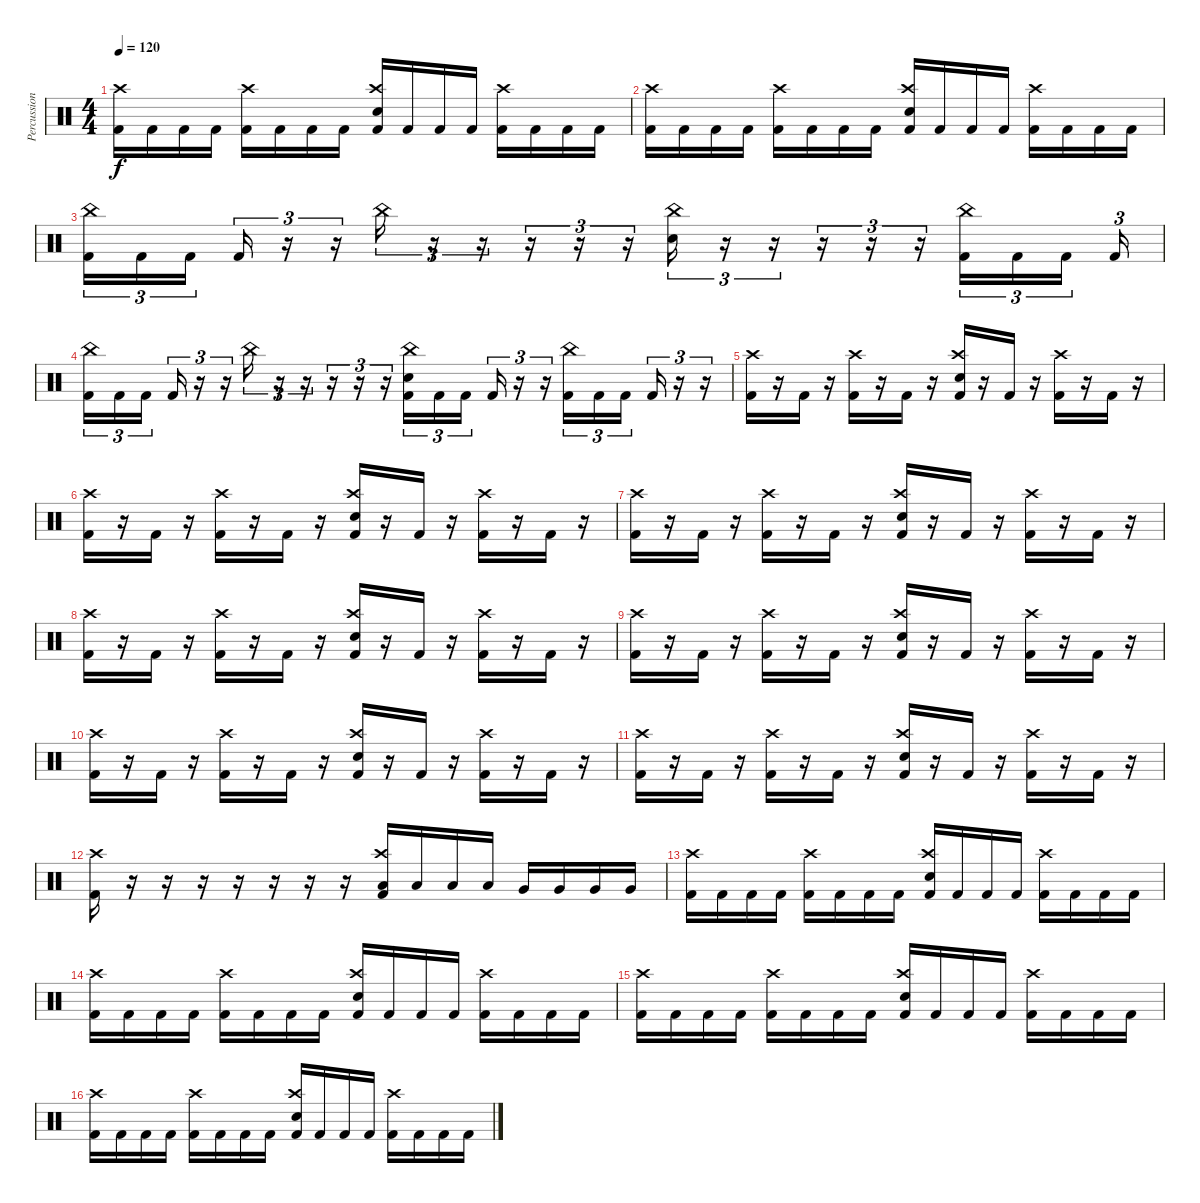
\track ("Percussion" "Percussion") {instrument percussion}
\staff {score}
\articulation defaults
\ts (4 4)
\tempo 120
\clef neutral
\ks c
("Kick (hit) 2" "Crash high (hit)").16{dy f} "Kick (hit) 2".16 "Kick (hit) 2".16 "Kick (hit) 2".16 ("Kick (hit) 2" "Crash high (hit)").16 "Kick (hit) 2".16 "Kick (hit) 2".16 "Kick (hit) 2".16 ("Kick (hit) 2" "Crash high (hit)" "Electric Snare (hit)").16 "Kick (hit) 2".16 "Kick (hit) 2".16 "Kick (hit) 2".16 ("Kick (hit) 2" "Crash high (hit)").16 "Kick (hit) 2".16 "Kick (hit) 2".16 "Kick (hit) 2".16 |
("Kick (hit) 2" "Crash high (hit)").16 "Kick (hit) 2".16 "Kick (hit) 2".16 "Kick (hit) 2".16 ("Kick (hit) 2" "Crash high (hit)").16 "Kick (hit) 2".16 "Kick (hit) 2".16 "Kick (hit) 2".16 ("Kick (hit) 2" "Crash high (hit)" "Electric Snare (hit)").16 "Kick (hit) 2".16 "Kick (hit) 2".16 "Kick (hit) 2".16 ("Kick (hit) 2" "Crash high (hit)").16 "Kick (hit) 2".16 "Kick (hit) 2".16 "Kick (hit) 2".16 |
("Kick (hit) 2" "China (hit)").16{tu (3 2)} "Kick (hit) 2".16{tu (3 2)} "Kick (hit) 2".16{tu (3 2)} "Kick (hit) 2".16{tu (3 2)} r.16{tu (3 2)} r.16{tu (3 2)} "China (hit)".16{tu (3 2)} r.16{tu (3 2)} r.16{tu (3 2)} r.16{tu (3 2)} r.16{tu (3 2)} r.16{tu (3 2)} ("Electric Snare (hit)" "China (hit)").16{tu (3 2)} r.16{tu (3 2)} r.16{tu (3 2)} r.16{tu (3 2)} r.16{tu (3 2)} r.16{tu (3 2)} ("Kick (hit) 2" "China (hit)").16{tu (3 2)} "Kick (hit) 2".16{tu (3 2)} "Kick (hit) 2".16{tu (3 2)} "Kick (hit) 2".16{tu (3 2)} |
("Kick (hit) 2" "China (hit)").16{tu (3 2)} "Kick (hit) 2".16{tu (3 2)} "Kick (hit) 2".16{tu (3 2)} "Kick (hit) 2".16{tu (3 2)} r.16{tu (3 2)} r.16{tu (3 2)} "China (hit)".16{tu (3 2)} r.16{tu (3 2)} r.16{tu (3 2)} r.16{tu (3 2)} r.16{tu (3 2)} r.16{tu (3 2)} ("Kick (hit) 2" "China (hit)" "Electric Snare (hit)").16{tu (3 2)} "Kick (hit) 2".16{tu (3 2)} "Kick (hit) 2".16{tu (3 2)} "Kick (hit) 2".16{tu (3 2)} r.16{tu (3 2)} r.16{tu (3 2)} ("Kick (hit) 2" "China (hit)").16{tu (3 2)} "Kick (hit) 2".16{tu (3 2)} "Kick (hit) 2".16{tu (3 2)} "Kick (hit) 2".16{tu (3 2)} r.16{tu (3 2)} r.16{tu (3 2)} |
("Kick (hit) 2" "Crash high (hit)").16 r.16 "Kick (hit) 2".16 r.16 ("Kick (hit) 2" "Crash high (hit)").16 r.16 "Kick (hit) 2".16 r.16 ("Kick (hit) 2" "Electric Snare (hit)" "Crash high (hit)").16 r.16 "Kick (hit) 2".16 r.16 ("Kick (hit) 2" "Crash high (hit)").16 r.16 "Kick (hit) 2".16 r.16 |
("Kick (hit) 2" "Crash high (hit)").16 r.16 "Kick (hit) 2".16 r.16 ("Kick (hit) 2" "Crash high (hit)").16 r.16 "Kick (hit) 2".16 r.16 ("Kick (hit) 2" "Electric Snare (hit)" "Crash high (hit)").16 r.16 "Kick (hit) 2".16 r.16 ("Kick (hit) 2" "Crash high (hit)").16 r.16 "Kick (hit) 2".16 r.16 |
("Kick (hit) 2" "Crash high (hit)").16 r.16 "Kick (hit) 2".16 r.16 ("Kick (hit) 2" "Crash high (hit)").16 r.16 "Kick (hit) 2".16 r.16 ("Kick (hit) 2" "Electric Snare (hit)" "Crash high (hit)").16 r.16 "Kick (hit) 2".16 r.16 ("Kick (hit) 2" "Crash high (hit)").16 r.16 "Kick (hit) 2".16 r.16 |
("Kick (hit) 2" "Crash high (hit)").16 r.16 "Kick (hit) 2".16 r.16 ("Kick (hit) 2" "Crash high (hit)").16 r.16 "Kick (hit) 2".16 r.16 ("Kick (hit) 2" "Electric Snare (hit)" "Crash high (hit)").16 r.16 "Kick (hit) 2".16 r.16 ("Kick (hit) 2" "Crash high (hit)").16 r.16 "Kick (hit) 2".16 r.16 |
("Kick (hit) 2" "Crash high (hit)").16 r.16 "Kick (hit) 2".16 r.16 ("Kick (hit) 2" "Crash high (hit)").16 r.16 "Kick (hit) 2".16 r.16 ("Kick (hit) 2" "Electric Snare (hit)" "Crash high (hit)").16 r.16 "Kick (hit) 2".16 r.16 ("Kick (hit) 2" "Crash high (hit)").16 r.16 "Kick (hit) 2".16 r.16 |
("Kick (hit) 2" "Crash high (hit)").16 r.16 "Kick (hit) 2".16 r.16 ("Kick (hit) 2" "Crash high (hit)").16 r.16 "Kick (hit) 2".16 r.16 ("Kick (hit) 2" "Electric Snare (hit)" "Crash high (hit)").16 r.16 "Kick (hit) 2".16 r.16 ("Kick (hit) 2" "Crash high (hit)").16 r.16 "Kick (hit) 2".16 r.16 |
("Kick (hit) 2" "Crash high (hit)").16 r.16 "Kick (hit) 2".16 r.16 ("Kick (hit) 2" "Crash high (hit)").16 r.16 "Kick (hit) 2".16 r.16 ("Kick (hit) 2" "Electric Snare (hit)" "Crash high (hit)").16 r.16 "Kick (hit) 2".16 r.16 ("Kick (hit) 2" "Crash high (hit)").16 r.16 "Kick (hit) 2".16 r.16 |
("Kick (hit) 2" "Crash high (hit)").16 r.16 r.16 r.16 r.16 r.16 r.16 r.16 ("Low Tom (hit)" "Kick (hit) 2" "Crash high (hit)").16 "Low Tom (hit)".16 "Low Tom (hit)".16 "Low Tom (hit)".16 "Very Low Tom (hit)".16 "Very Low Tom (hit)".16 "Very Low Tom (hit)".16 "Very Low Tom (hit)".16 |
("Kick (hit) 2" "Crash high (hit)").16 "Kick (hit) 2".16 "Kick (hit) 2".16 "Kick (hit) 2".16 ("Kick (hit) 2" "Crash high (hit)").16 "Kick (hit) 2".16 "Kick (hit) 2".16 "Kick (hit) 2".16 ("Kick (hit) 2" "Electric Snare (hit)" "Crash high (hit)").16 "Kick (hit) 2".16 "Kick (hit) 2".16 "Kick (hit) 2".16 ("Kick (hit) 2" "Crash high (hit)").16 "Kick (hit) 2".16 "Kick (hit) 2".16 "Kick (hit) 2".16 |
("Kick (hit) 2" "Crash high (hit)").16 "Kick (hit) 2".16 "Kick (hit) 2".16 "Kick (hit) 2".16 ("Kick (hit) 2" "Crash high (hit)").16 "Kick (hit) 2".16 "Kick (hit) 2".16 "Kick (hit) 2".16 ("Kick (hit) 2" "Electric Snare (hit)" "Crash high (hit)").16 "Kick (hit) 2".16 "Kick (hit) 2".16 "Kick (hit) 2".16 ("Kick (hit) 2" "Crash high (hit)").16 "Kick (hit) 2".16 "Kick (hit) 2".16 "Kick (hit) 2".16 |
("Kick (hit) 2" "Crash high (hit)").16 "Kick (hit) 2".16 "Kick (hit) 2".16 "Kick (hit) 2".16 ("Kick (hit) 2" "Crash high (hit)").16 "Kick (hit) 2".16 "Kick (hit) 2".16 "Kick (hit) 2".16 ("Kick (hit) 2" "Electric Snare (hit)" "Crash high (hit)").16 "Kick (hit) 2".16 "Kick (hit) 2".16 "Kick (hit) 2".16 ("Kick (hit) 2" "Crash high (hit)").16 "Kick (hit) 2".16 "Kick (hit) 2".16 "Kick (hit) 2".16 |
("Kick (hit) 2" "Crash high (hit)").16 "Kick (hit) 2".16 "Kick (hit) 2".16 "Kick (hit) 2".16 ("Kick (hit) 2" "Crash high (hit)").16 "Kick (hit) 2".16 "Kick (hit) 2".16 "Kick (hit) 2".16 ("Kick (hit) 2" "Electric Snare (hit)" "Crash high (hit)").16 "Kick (hit) 2".16 "Kick (hit) 2".16 "Kick (hit) 2".16 ("Kick (hit) 2" "Crash high (hit)").16 "Kick (hit) 2".16 "Kick (hit) 2".16 "Kick (hit) 2".16
